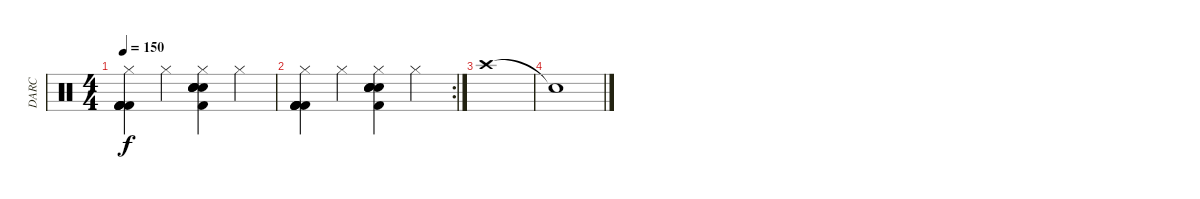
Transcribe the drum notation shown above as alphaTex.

\track ("DARC" "DARC") {instrument percussion}
\staff {score}
\articulation defaults
\ts (4 4)
\tempo 150
\clef neutral
\ks c
("Hi-Hat (closed)" "Kick (hit) 2" "Kick (hit) 2" "Kick (hit) 2" "Kick (hit) 2" "Kick (hit) 2").4{dy f} "Hi-Hat (closed)".4 ("Hi-Hat (closed)" "Electric Snare (hit)" "Electric Snare (hit)" "Electric Snare (hit)" "Electric Snare (hit)" "Kick (hit) 2").4 "Hi-Hat (closed)".4 |
\rc 2
("Hi-Hat (closed)" "Kick (hit) 2" "Kick (hit) 2" "Kick (hit) 2" "Kick (hit) 2" "Kick (hit) 2").4 "Hi-Hat (closed)".4 ("Hi-Hat (closed)" "Electric Snare (hit)" "Electric Snare (hit)" "Electric Snare (hit)" "Electric Snare (hit)" "Kick (hit) 2").4 "Hi-Hat (closed)".4 |
"Crash high (hit)".1 |
"Snare (hit)"{t}.1
